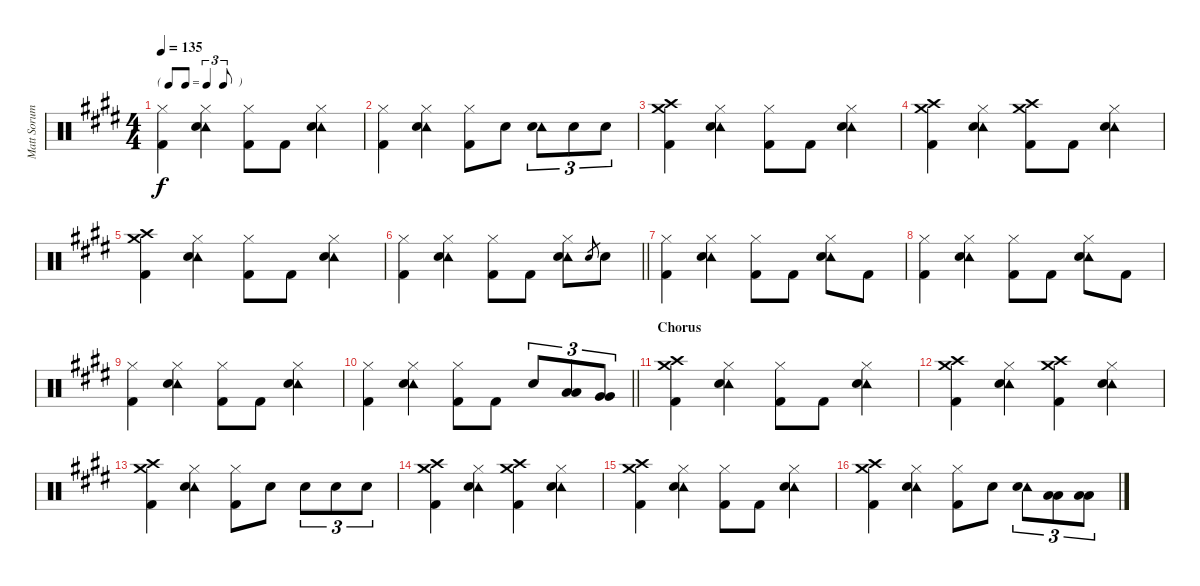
\track ("Matt Sorum - Drums" "Matt Sorum") {instrument percussion}
\staff {score}
\articulation defaults
\ts (4 4)
\tf triplet8th
\tempo 135
\clef neutral
\ks e
("Hi-Hat (closed)" "Kick (hit) 2").4{dy f} ("Hi-Hat (closed)" "Tambourine (hit)" "Snare (hit) 2").4 ("Hi-Hat (closed)" "Kick (hit) 2").8 "Kick (hit) 2".8 ("Hi-Hat (closed)" "Tambourine (hit)" "Snare (hit) 2").4 |
("Hi-Hat (closed)" "Kick (hit) 2").4 ("Hi-Hat (closed)" "Tambourine (hit)" "Snare (hit) 2").4 ("Hi-Hat (closed)" "Kick (hit) 2").8 "Snare (hit) 2".8 ("Tambourine (hit)" "Snare (hit) 2").8{tu (3 2)} "Snare (hit) 2".8{tu (3 2)} "Snare (hit) 2".8{tu (3 2)} |
("Crash medium (hit)" "Crash high (hit)" "Kick (hit) 2").4 ("Hi-Hat (closed)" "Tambourine (hit)" "Snare (hit) 2").4 ("Hi-Hat (closed)" "Kick (hit) 2").8 "Kick (hit) 2".8 ("Hi-Hat (closed)" "Tambourine (hit)" "Snare (hit) 2").4 |
("Crash medium (hit)" "Crash high (hit)" "Kick (hit) 2").4 ("Hi-Hat (closed)" "Tambourine (hit)" "Snare (hit) 2").4 ("Crash high (hit)" "Crash medium (hit)" "Kick (hit) 2").8 "Kick (hit) 2".8 ("Hi-Hat (closed)" "Tambourine (hit)" "Snare (hit) 2").4 |
("Crash medium (hit)" "Crash high (hit)" "Kick (hit) 2").4 ("Hi-Hat (closed)" "Tambourine (hit)" "Snare (hit) 2").4 ("Hi-Hat (closed)" "Kick (hit) 2").8 "Kick (hit) 2".8 ("Hi-Hat (closed)" "Tambourine (hit)" "Snare (hit) 2").4 |
\barLineRight lightlight
("Hi-Hat (closed)" "Kick (hit) 2").4 ("Hi-Hat (closed)" "Tambourine (hit)" "Snare (hit) 2").4 ("Hi-Hat (closed)" "Kick (hit) 2").8 "Kick (hit) 2".8 ("Hi-Hat (closed)" "Tambourine (hit)" "Snare (hit) 2").8 "Snare (hit) 2".8{gr} "Snare (hit) 2".8 |
("Hi-Hat (closed)" "Kick (hit) 2").4 ("Hi-Hat (closed)" "Tambourine (hit)" "Snare (hit) 2").4 ("Hi-Hat (closed)" "Kick (hit) 2").8 "Kick (hit) 2".8 ("Hi-Hat (closed)" "Tambourine (hit)" "Snare (hit) 2").8 "Kick (hit) 2".8 |
("Hi-Hat (closed)" "Kick (hit) 2").4 ("Hi-Hat (closed)" "Tambourine (hit)" "Snare (hit) 2").4 ("Hi-Hat (closed)" "Kick (hit) 2").8 "Kick (hit) 2".8 ("Hi-Hat (closed)" "Tambourine (hit)" "Snare (hit) 2").8 "Kick (hit) 2".8 |
("Hi-Hat (closed)" "Kick (hit) 2").4 ("Hi-Hat (closed)" "Tambourine (hit)" "Snare (hit) 2").4 ("Hi-Hat (closed)" "Kick (hit) 2").8 "Kick (hit) 2".8 ("Hi-Hat (closed)" "Tambourine (hit)" "Snare (hit) 2").4 |
\barLineRight lightlight
("Hi-Hat (closed)" "Kick (hit) 2").4 ("Hi-Hat (closed)" "Tambourine (hit)" "Snare (hit) 2").4 ("Hi-Hat (closed)" "Kick (hit) 2").8 "Kick (hit) 2".8 "Snare (hit) 2".8{tu (3 2)} ("Low Tom (hit)" "Low Tom (hit)").8{tu (3 2)} ("Very Low Tom (hit)" "Very Low Tom (hit)").8{tu (3 2)} |
\section ("" "Chorus")
("Crash medium (hit)" "Crash high (hit)" "Kick (hit) 2").4 ("Hi-Hat (closed)" "Tambourine (hit)" "Snare (hit) 2").4 ("Hi-Hat (closed)" "Kick (hit) 2").8 "Kick (hit) 2".8 ("Hi-Hat (closed)" "Tambourine (hit)" "Snare (hit) 2").4 |
("Crash medium (hit)" "Crash high (hit)" "Kick (hit) 2").4 ("Hi-Hat (closed)" "Tambourine (hit)" "Snare (hit) 2").4 ("Crash high (hit)" "Crash medium (hit)" "Kick (hit) 2").4 ("Hi-Hat (closed)" "Tambourine (hit)" "Snare (hit) 2").4 |
("Crash medium (hit)" "Crash high (hit)" "Kick (hit) 2").4 ("Hi-Hat (closed)" "Tambourine (hit)" "Snare (hit) 2").4 ("Hi-Hat (closed)" "Kick (hit) 2").8 "Snare (hit) 2".8 "Snare (hit) 2".8{tu (3 2)} "Snare (hit) 2".8{tu (3 2)} "Snare (hit) 2".8{tu (3 2)} |
("Crash medium (hit)" "Crash high (hit)" "Kick (hit) 2").4 ("Hi-Hat (closed)" "Tambourine (hit)" "Snare (hit) 2").4 ("Crash high (hit)" "Crash medium (hit)" "Kick (hit) 2").4 ("Hi-Hat (closed)" "Tambourine (hit)" "Snare (hit) 2").4 |
("Crash medium (hit)" "Crash high (hit)" "Kick (hit) 2").4 ("Hi-Hat (closed)" "Tambourine (hit)" "Snare (hit) 2").4 ("Hi-Hat (closed)" "Kick (hit) 2").8 "Kick (hit) 2".8 ("Hi-Hat (closed)" "Tambourine (hit)" "Snare (hit) 2").4 |
("Crash medium (hit)" "Crash high (hit)" "Kick (hit) 2").4 ("Hi-Hat (closed)" "Tambourine (hit)" "Snare (hit) 2").4 ("Hi-Hat (closed)" "Kick (hit) 2").8 "Snare (hit) 2".8 ("Tambourine (hit)" "Snare (hit) 2").8{tu (3 2)} ("Low Tom (hit)" "Low Tom (hit)").8{tu (3 2)} ("Low Tom (hit)" "Low Tom (hit)").8{tu (3 2)}
